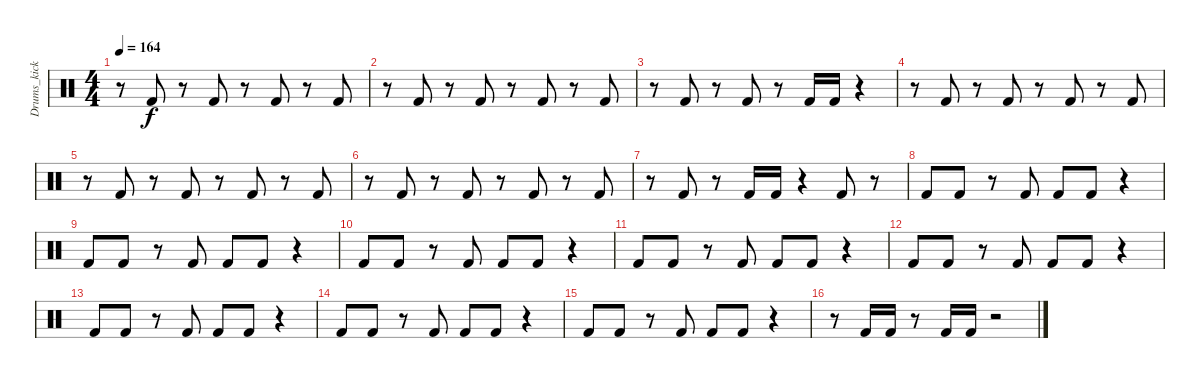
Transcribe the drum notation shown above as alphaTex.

\track ("Drums_kick" "Drums_kick") {instrument percussion}
\staff {score}
\articulation defaults
\ts (4 4)
\tempo 164
\clef neutral
\ks c
r.8{dy f} "Kick (hit) 2".8 r.8 "Kick (hit) 2".8 r.8 "Kick (hit) 2".8 r.8 "Kick (hit) 2".8 |
r.8 "Kick (hit) 2".8 r.8 "Kick (hit) 2".8 r.8 "Kick (hit) 2".8 r.8 "Kick (hit) 2".8 |
r.8 "Kick (hit) 2".8 r.8 "Kick (hit) 2".8 r.8 "Kick (hit) 2".16 "Kick (hit) 2".16 r.4 |
r.8 "Kick (hit) 2".8 r.8 "Kick (hit) 2".8 r.8 "Kick (hit) 2".8 r.8 "Kick (hit) 2".8 |
r.8 "Kick (hit) 2".8 r.8 "Kick (hit) 2".8 r.8 "Kick (hit) 2".8 r.8 "Kick (hit) 2".8 |
r.8 "Kick (hit) 2".8 r.8 "Kick (hit) 2".8 r.8 "Kick (hit) 2".8 r.8 "Kick (hit) 2".8 |
r.8 "Kick (hit) 2".8 r.8 "Kick (hit) 2".16 "Kick (hit) 2".16 r.4 "Kick (hit) 2".8 r.8 |
"Kick (hit) 2".8 "Kick (hit) 2".8 r.8 "Kick (hit) 2".8 "Kick (hit) 2".8 "Kick (hit) 2".8 r.4 |
"Kick (hit) 2".8 "Kick (hit) 2".8 r.8 "Kick (hit) 2".8 "Kick (hit) 2".8 "Kick (hit) 2".8 r.4 |
"Kick (hit) 2".8 "Kick (hit) 2".8 r.8 "Kick (hit) 2".8 "Kick (hit) 2".8 "Kick (hit) 2".8 r.4 |
"Kick (hit) 2".8 "Kick (hit) 2".8 r.8 "Kick (hit) 2".8 "Kick (hit) 2".8 "Kick (hit) 2".8 r.4 |
"Kick (hit) 2".8 "Kick (hit) 2".8 r.8 "Kick (hit) 2".8 "Kick (hit) 2".8 "Kick (hit) 2".8 r.4 |
"Kick (hit) 2".8 "Kick (hit) 2".8 r.8 "Kick (hit) 2".8 "Kick (hit) 2".8 "Kick (hit) 2".8 r.4 |
"Kick (hit) 2".8 "Kick (hit) 2".8 r.8 "Kick (hit) 2".8 "Kick (hit) 2".8 "Kick (hit) 2".8 r.4 |
"Kick (hit) 2".8 "Kick (hit) 2".8 r.8 "Kick (hit) 2".8 "Kick (hit) 2".8 "Kick (hit) 2".8 r.4 |
r.8 "Kick (hit) 2".16 "Kick (hit) 2".16 r.8 "Kick (hit) 2".16 "Kick (hit) 2".16 r.2
